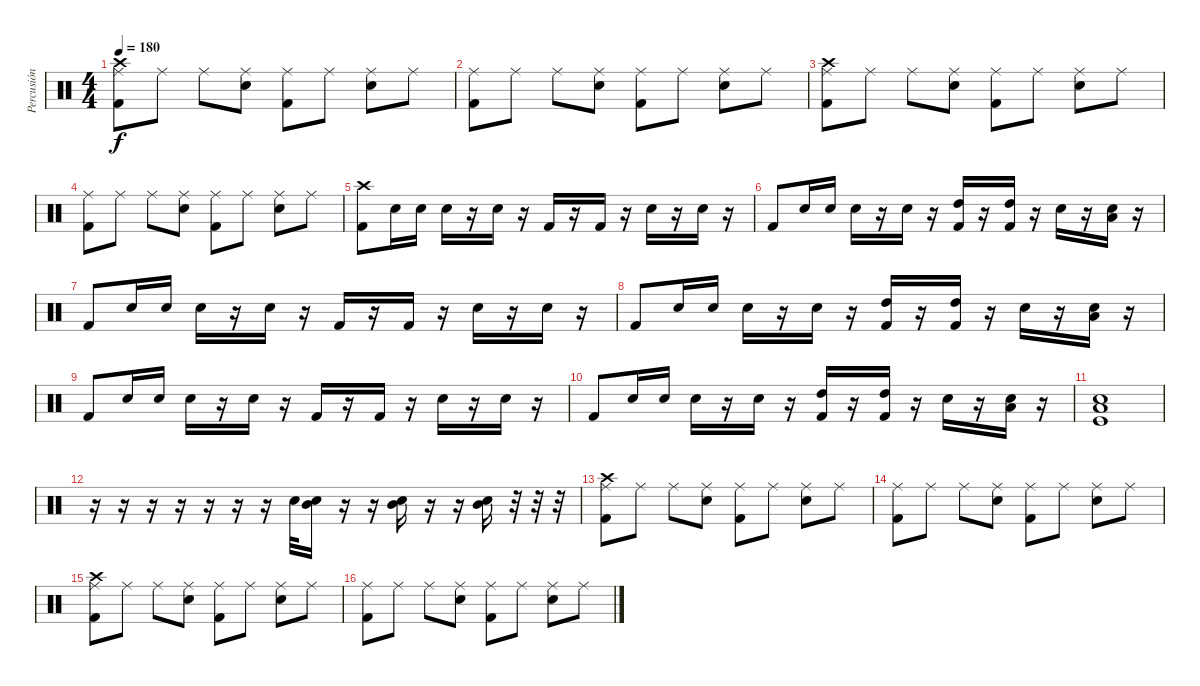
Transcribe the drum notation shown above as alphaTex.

\track ("Percusión" "Percusión") {instrument percussion}
\staff {score}
\articulation defaults
\ts (4 4)
\tempo 180
\clef neutral
\ks c
("Kick (hit) 2" "Crash high (hit)" "Ride (middle)").8{dy f} "Ride (middle)".8 "Ride (middle)".8 ("Snare (hit) 2" "Ride (middle)").8 ("Kick (hit) 2" "Ride (middle)").8 "Ride (middle)".8 ("Snare (hit) 2" "Ride (middle)").8 "Ride (middle)".8 |
("Kick (hit) 2" "Ride (middle)").8 "Ride (middle)".8 "Ride (middle)".8 ("Snare (hit) 2" "Ride (middle)").8 ("Kick (hit) 2" "Ride (middle)").8 "Ride (middle)".8 ("Snare (hit) 2" "Ride (middle)").8 "Ride (middle)".8 |
("Kick (hit) 2" "Crash high (hit)" "Ride (middle)").8 "Ride (middle)".8 "Ride (middle)".8 ("Snare (hit) 2" "Ride (middle)").8 ("Kick (hit) 2" "Ride (middle)").8 "Ride (middle)".8 ("Snare (hit) 2" "Ride (middle)").8 "Ride (middle)".8 |
("Kick (hit) 2" "Ride (middle)").8 "Ride (middle)".8 "Ride (middle)".8 ("Snare (hit) 2" "Ride (middle)").8 ("Kick (hit) 2" "Ride (middle)").8 "Ride (middle)".8 ("Snare (hit) 2" "Ride (middle)").8 "Ride (middle)".8 |
("Kick (hit) 2" "Crash high (hit)").8 "Snare (hit) 2".16{volume 10} "Snare (hit) 2".16 "Snare (hit) 2".16 r.16 "Snare (hit) 2".16{volume 13} r.16 "Kick (hit) 2".16 r.16 "Kick (hit) 2".16 r.16 "Snare (hit) 2".16 r.16 "Snare (hit) 2".16 r.16 |
"Kick (hit) 2".8 "Snare (hit) 2".16{volume 10} "Snare (hit) 2".16 "Snare (hit) 2".16 r.16 "Snare (hit) 2".16{volume 13} r.16 ("Kick (hit) 2" "High Tom (hit)").16 r.16 ("Kick (hit) 2" "High Tom (hit)").16 r.16 "Snare (hit) 2".16 r.16 ("Low Tom (hit)" "Snare (hit) 2").16 r.16 |
"Kick (hit) 2".8 "Snare (hit) 2".16{volume 10} "Snare (hit) 2".16 "Snare (hit) 2".16 r.16 "Snare (hit) 2".16{volume 13} r.16 "Kick (hit) 2".16 r.16 "Kick (hit) 2".16 r.16 "Snare (hit) 2".16 r.16 "Snare (hit) 2".16 r.16 |
"Kick (hit) 2".8 "Snare (hit) 2".16{volume 10} "Snare (hit) 2".16 "Snare (hit) 2".16 r.16 "Snare (hit) 2".16{volume 13} r.16 ("Kick (hit) 2" "High Tom (hit)").16 r.16 ("Kick (hit) 2" "High Tom (hit)").16 r.16 "Snare (hit) 2".16 r.16 ("Low Tom (hit)" "Snare (hit) 2").16 r.16 |
"Kick (hit) 2".8 "Snare (hit) 2".16{volume 10} "Snare (hit) 2".16 "Snare (hit) 2".16 r.16 "Snare (hit) 2".16{volume 13} r.16 "Kick (hit) 2".16 r.16 "Kick (hit) 2".16 r.16 "Snare (hit) 2".16 r.16 "Snare (hit) 2".16 r.16 |
"Kick (hit) 2".8 "Snare (hit) 2".16{volume 10} "Snare (hit) 2".16 "Snare (hit) 2".16 r.16 "Snare (hit) 2".16{volume 13} r.16 ("Kick (hit) 2" "High Tom (hit)").16 r.16 ("Kick (hit) 2" "High Tom (hit)").16 r.16 "Snare (hit) 2".16 r.16 ("Low Tom (hit)" "Snare (hit) 2").16 r.16 |
("Kick (hit)" "Snare (hit) 2" "Low Floor Tom (hit)").1 |
r.16 r.16 r.16 r.16 r.16 r.16 r.16 "Snare (hit) 2".32 ("Snare (hit) 2" "Mid Tom (hit)").16 r.16 r.16 ("Snare (hit) 2" "Mid Tom (hit)").16 r.16 r.16 ("Snare (hit) 2" "Mid Tom (hit)").16 r.32 r.32 r.32 |
("Kick (hit) 2" "Crash high (hit)" "Ride (middle)").8 "Ride (middle)".8 "Ride (middle)".8 ("Snare (hit) 2" "Ride (middle)").8 ("Kick (hit) 2" "Ride (middle)").8 "Ride (middle)".8 ("Snare (hit) 2" "Ride (middle)").8 "Ride (middle)".8 |
("Kick (hit) 2" "Ride (middle)").8 "Ride (middle)".8 "Ride (middle)".8 ("Snare (hit) 2" "Ride (middle)").8 ("Kick (hit) 2" "Ride (middle)").8 "Ride (middle)".8 ("Snare (hit) 2" "Ride (middle)").8 "Ride (middle)".8 |
("Kick (hit) 2" "Crash high (hit)" "Ride (middle)").8 "Ride (middle)".8 "Ride (middle)".8 ("Snare (hit) 2" "Ride (middle)").8 ("Kick (hit) 2" "Ride (middle)").8 "Ride (middle)".8 ("Snare (hit) 2" "Ride (middle)").8 "Ride (middle)".8 |
("Kick (hit) 2" "Ride (middle)").8 "Ride (middle)".8 "Ride (middle)".8 ("Snare (hit) 2" "Ride (middle)").8 ("Kick (hit) 2" "Ride (middle)").8 "Ride (middle)".8 ("Snare (hit) 2" "Ride (middle)").8 "Ride (middle)".8
